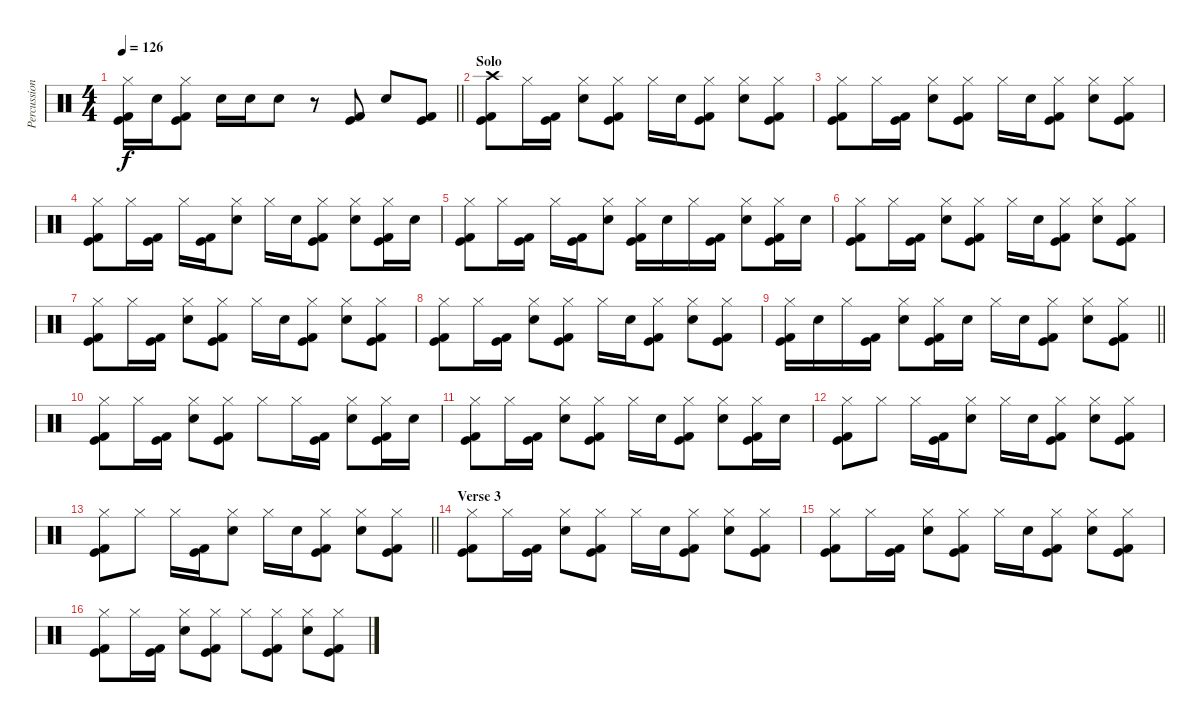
\track ("Percussion" "Percussion") {instrument percussion}
\staff {score}
\articulation defaults
\ts (4 4)
\tempo 126
\clef neutral
\barLineRight lightlight
\ks c
("Hi-Hat (closed)" "Kick (hit)" "Kick (hit) 2").16{dy f} "Electric Snare (hit)".16 ("Hi-Hat (closed)" "Kick (hit)" "Kick (hit) 2").8 "Electric Snare (hit)".16 "Electric Snare (hit)".16 "Electric Snare (hit)".8 r.8 ("Kick (hit)" "Kick (hit) 2").8 "Electric Snare (hit)".8 ("Kick (hit)" "Kick (hit) 2").8 |
\section ("" "Solo")
("Crash high (hit)" "Kick (hit)" "Kick (hit) 2").8 "Hi-Hat (closed)".16 ("Kick (hit)" "Kick (hit) 2").16 ("Hi-Hat (closed)" "Electric Snare (hit)").8 ("Hi-Hat (closed)" "Kick (hit)" "Kick (hit) 2").8 "Hi-Hat (closed)".16 "Electric Snare (hit)".16 ("Hi-Hat (closed)" "Kick (hit)" "Kick (hit) 2").8 ("Hi-Hat (closed)" "Electric Snare (hit)").8 ("Hi-Hat (closed)" "Kick (hit)" "Kick (hit) 2").8 |
("Hi-Hat (closed)" "Kick (hit)" "Kick (hit) 2").8 "Hi-Hat (closed)".16 ("Kick (hit)" "Kick (hit) 2").16 ("Hi-Hat (closed)" "Electric Snare (hit)").8 ("Hi-Hat (closed)" "Kick (hit)" "Kick (hit) 2").8 "Hi-Hat (closed)".16 "Electric Snare (hit)".16 ("Hi-Hat (closed)" "Kick (hit)" "Kick (hit) 2").8 ("Hi-Hat (closed)" "Electric Snare (hit)").8 ("Hi-Hat (closed)" "Kick (hit)" "Kick (hit) 2").8 |
("Hi-Hat (closed)" "Kick (hit)" "Kick (hit) 2").8 "Hi-Hat (closed)".16 ("Kick (hit)" "Kick (hit) 2").16 "Hi-Hat (closed)".16 ("Kick (hit)" "Kick (hit) 2").16 ("Hi-Hat (closed)" "Electric Snare (hit)").8 "Hi-Hat (closed)".16 "Electric Snare (hit)".16 ("Hi-Hat (closed)" "Kick (hit)" "Kick (hit) 2").8 ("Hi-Hat (closed)" "Electric Snare (hit)").8 ("Hi-Hat (closed)" "Kick (hit)" "Kick (hit) 2").16 "Electric Snare (hit)".16 |
("Hi-Hat (closed)" "Kick (hit)" "Kick (hit) 2").8 "Hi-Hat (closed)".16 ("Kick (hit)" "Kick (hit) 2").16 "Hi-Hat (closed)".16 ("Kick (hit)" "Kick (hit) 2").16 ("Hi-Hat (closed)" "Electric Snare (hit)").8 ("Hi-Hat (closed)" "Kick (hit)" "Kick (hit) 2").16 "Electric Snare (hit)".16 "Hi-Hat (closed)".16 ("Kick (hit)" "Kick (hit) 2").16 ("Hi-Hat (closed)" "Electric Snare (hit)").8 ("Hi-Hat (closed)" "Kick (hit)" "Kick (hit) 2").16 "Electric Snare (hit)".16 |
("Hi-Hat (closed)" "Kick (hit)" "Kick (hit) 2").8 "Hi-Hat (closed)".16 ("Kick (hit)" "Kick (hit) 2").16 ("Hi-Hat (closed)" "Electric Snare (hit)").8 ("Hi-Hat (closed)" "Kick (hit)" "Kick (hit) 2").8 "Hi-Hat (closed)".16 "Electric Snare (hit)".16 ("Hi-Hat (closed)" "Kick (hit)" "Kick (hit) 2").8 ("Hi-Hat (closed)" "Electric Snare (hit)").8 ("Hi-Hat (closed)" "Kick (hit)" "Kick (hit) 2").8 |
("Hi-Hat (closed)" "Kick (hit)" "Kick (hit) 2").8 "Hi-Hat (closed)".16 ("Kick (hit)" "Kick (hit) 2").16 ("Hi-Hat (closed)" "Electric Snare (hit)").8 ("Hi-Hat (closed)" "Kick (hit)" "Kick (hit) 2").8 "Hi-Hat (closed)".16 "Electric Snare (hit)".16 ("Hi-Hat (closed)" "Kick (hit)" "Kick (hit) 2").8 ("Hi-Hat (closed)" "Electric Snare (hit)").8 ("Hi-Hat (closed)" "Kick (hit)" "Kick (hit) 2").8 |
("Hi-Hat (closed)" "Kick (hit)" "Kick (hit) 2").8 "Hi-Hat (closed)".16 ("Kick (hit)" "Kick (hit) 2").16 ("Hi-Hat (closed)" "Electric Snare (hit)").8 ("Hi-Hat (closed)" "Kick (hit)" "Kick (hit) 2").8 "Hi-Hat (closed)".16 "Electric Snare (hit)".16 ("Hi-Hat (closed)" "Kick (hit)" "Kick (hit) 2").8 ("Hi-Hat (closed)" "Electric Snare (hit)").8 ("Hi-Hat (closed)" "Kick (hit)" "Kick (hit) 2").8 |
\barLineRight lightlight
("Hi-Hat (closed)" "Kick (hit)" "Kick (hit) 2").16 "Electric Snare (hit)".16 "Hi-Hat (closed)".16 ("Kick (hit)" "Kick (hit) 2").16 ("Hi-Hat (closed)" "Electric Snare (hit)").8 ("Hi-Hat (closed)" "Kick (hit)" "Kick (hit) 2").16 "Electric Snare (hit)".16 "Hi-Hat (closed)".16 "Electric Snare (hit)".16 ("Hi-Hat (closed)" "Kick (hit)" "Kick (hit) 2").8 ("Hi-Hat (closed)" "Electric Snare (hit)").8 ("Hi-Hat (closed)" "Kick (hit)" "Kick (hit) 2").8 |
\section ("" "")
("Hi-Hat (closed)" "Kick (hit)" "Kick (hit) 2").8 "Hi-Hat (closed)".16 ("Kick (hit)" "Kick (hit) 2").16 ("Hi-Hat (closed)" "Electric Snare (hit)").8 ("Hi-Hat (closed)" "Kick (hit)" "Kick (hit) 2").8 "Hi-Hat (closed)".8 "Hi-Hat (closed)".16 ("Kick (hit)" "Kick (hit) 2").16 ("Hi-Hat (closed)" "Electric Snare (hit)").8 ("Hi-Hat (closed)" "Kick (hit)" "Kick (hit) 2").16 "Electric Snare (hit)".16 |
("Hi-Hat (closed)" "Kick (hit)" "Kick (hit) 2").8 "Hi-Hat (closed)".16 ("Kick (hit)" "Kick (hit) 2").16 ("Hi-Hat (closed)" "Electric Snare (hit)").8 ("Hi-Hat (closed)" "Kick (hit)" "Kick (hit) 2").8 "Hi-Hat (closed)".16 "Electric Snare (hit)".16 ("Hi-Hat (closed)" "Kick (hit)" "Kick (hit) 2").8 ("Hi-Hat (closed)" "Electric Snare (hit)").8 ("Hi-Hat (closed)" "Kick (hit)" "Kick (hit) 2").16 "Electric Snare (hit)".16 |
("Hi-Hat (closed)" "Kick (hit)" "Kick (hit) 2").8 "Hi-Hat (closed)".8 "Hi-Hat (closed)".16 ("Kick (hit)" "Kick (hit) 2").16 ("Hi-Hat (closed)" "Electric Snare (hit)").8 "Hi-Hat (closed)".16 "Electric Snare (hit)".16 ("Hi-Hat (closed)" "Kick (hit)" "Kick (hit) 2").8 ("Hi-Hat (closed)" "Electric Snare (hit)").8 ("Hi-Hat (closed)" "Kick (hit)" "Kick (hit) 2").8 |
\barLineRight lightlight
("Hi-Hat (closed)" "Kick (hit)" "Kick (hit) 2").8 "Hi-Hat (closed)".8 "Hi-Hat (closed)".16 ("Kick (hit)" "Kick (hit) 2").16 ("Hi-Hat (closed)" "Electric Snare (hit)").8 "Hi-Hat (closed)".16 "Electric Snare (hit)".16 ("Hi-Hat (closed)" "Kick (hit)" "Kick (hit) 2").8 ("Hi-Hat (closed)" "Electric Snare (hit)").8 ("Hi-Hat (closed)" "Kick (hit)" "Kick (hit) 2").8 |
\section ("" "Verse 3")
("Hi-Hat (closed)" "Kick (hit)" "Kick (hit) 2").8 "Hi-Hat (closed)".16 ("Kick (hit)" "Kick (hit) 2").16 ("Hi-Hat (closed)" "Electric Snare (hit)").8 ("Hi-Hat (closed)" "Kick (hit)" "Kick (hit) 2").8 "Hi-Hat (closed)".16 "Electric Snare (hit)".16 ("Hi-Hat (closed)" "Kick (hit)" "Kick (hit) 2").8 ("Hi-Hat (closed)" "Electric Snare (hit)").8 ("Hi-Hat (closed)" "Kick (hit)" "Kick (hit) 2").8 |
("Hi-Hat (closed)" "Kick (hit)" "Kick (hit) 2").8 "Hi-Hat (closed)".16 ("Kick (hit)" "Kick (hit) 2").16 ("Hi-Hat (closed)" "Electric Snare (hit)").8 ("Hi-Hat (closed)" "Kick (hit)" "Kick (hit) 2").8 "Hi-Hat (closed)".16 "Electric Snare (hit)".16 ("Hi-Hat (closed)" "Kick (hit)" "Kick (hit) 2").8 ("Hi-Hat (closed)" "Electric Snare (hit)").8 ("Hi-Hat (closed)" "Kick (hit)" "Kick (hit) 2").8 |
("Hi-Hat (closed)" "Kick (hit)" "Kick (hit) 2").8 "Hi-Hat (closed)".16 ("Kick (hit)" "Kick (hit) 2").16 ("Hi-Hat (closed)" "Electric Snare (hit)").8 ("Hi-Hat (closed)" "Kick (hit)" "Kick (hit) 2").8 "Hi-Hat (closed)".8 ("Hi-Hat (closed)" "Kick (hit)" "Kick (hit) 2").8 ("Hi-Hat (closed)" "Electric Snare (hit)").8 ("Hi-Hat (closed)" "Kick (hit)" "Kick (hit) 2").8
